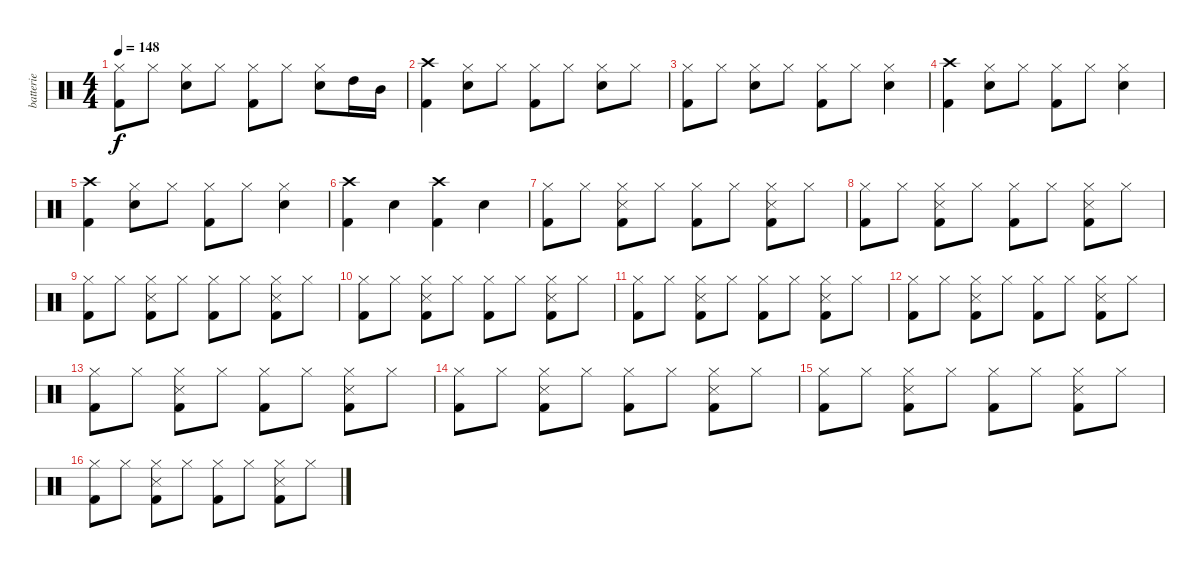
\track ("batterie" "batterie") {instrument percussion}
\staff {score}
\articulation defaults
\ts (4 4)
\tempo 148
\clef neutral
\ks c
("Hi-Hat (closed)" "Kick (hit) 2").8{dy f} "Hi-Hat (closed)".8 ("Hi-Hat (closed)" "Snare (hit) 2").8 "Hi-Hat (closed)".8 ("Hi-Hat (closed)" "Kick (hit) 2").8 "Hi-Hat (closed)".8 ("Hi-Hat (closed)" "Snare (hit) 2").8 "High Tom (hit)".16 "Mid Tom (hit)".16 |
("Crash high (hit)" "Kick (hit) 2").4 ("Hi-Hat (closed)" "Snare (hit) 2").8 "Hi-Hat (closed)".8 ("Hi-Hat (closed)" "Kick (hit) 2").8 "Hi-Hat (closed)".8 ("Hi-Hat (closed)" "Snare (hit) 2").8 "Hi-Hat (closed)".8 |
("Hi-Hat (closed)" "Kick (hit) 2").8 "Hi-Hat (closed)".8 ("Hi-Hat (closed)" "Snare (hit) 2").8 "Hi-Hat (closed)".8 ("Hi-Hat (closed)" "Kick (hit) 2").8 "Hi-Hat (closed)".8 ("Hi-Hat (closed)" "Snare (hit) 2").4 |
("Crash high (hit)" "Kick (hit) 2").4 ("Hi-Hat (closed)" "Snare (hit) 2").8 "Hi-Hat (closed)".8 ("Hi-Hat (closed)" "Kick (hit) 2").8 "Hi-Hat (closed)".8 ("Hi-Hat (closed)" "Snare (hit) 2").4 |
("Crash high (hit)" "Kick (hit) 2").4 ("Hi-Hat (closed)" "Snare (hit) 2").8 "Hi-Hat (closed)".8 ("Hi-Hat (closed)" "Kick (hit) 2").8 "Hi-Hat (closed)".8 ("Hi-Hat (closed)" "Snare (hit) 2").4 |
("Crash high (hit)" "Kick (hit) 2").4 "Snare (hit) 2".4 ("Crash high (hit)" "Kick (hit) 2").4 "Snare (hit) 2".4 |
("Hi-Hat (closed)" "Kick (hit) 2").8 "Hi-Hat (closed)".8 ("Hi-Hat (closed)" "Snare (side stick) 3" "Kick (hit) 2").8 "Hi-Hat (closed)".8 ("Hi-Hat (closed)" "Kick (hit) 2").8 "Hi-Hat (closed)".8 ("Hi-Hat (closed)" "Snare (side stick) 3" "Kick (hit) 2").8 "Hi-Hat (closed)".8 |
("Hi-Hat (closed)" "Kick (hit) 2").8 "Hi-Hat (closed)".8 ("Hi-Hat (closed)" "Snare (side stick) 3" "Kick (hit) 2").8 "Hi-Hat (closed)".8 ("Hi-Hat (closed)" "Kick (hit) 2").8 "Hi-Hat (closed)".8 ("Hi-Hat (closed)" "Snare (side stick) 3" "Kick (hit) 2").8 "Hi-Hat (closed)".8 |
("Hi-Hat (closed)" "Kick (hit) 2").8 "Hi-Hat (closed)".8 ("Hi-Hat (closed)" "Snare (side stick) 3" "Kick (hit) 2").8 "Hi-Hat (closed)".8 ("Hi-Hat (closed)" "Kick (hit) 2").8 "Hi-Hat (closed)".8 ("Hi-Hat (closed)" "Snare (side stick) 3" "Kick (hit) 2").8 "Hi-Hat (closed)".8 |
("Hi-Hat (closed)" "Kick (hit) 2").8 "Hi-Hat (closed)".8 ("Hi-Hat (closed)" "Snare (side stick) 3" "Kick (hit) 2").8 "Hi-Hat (closed)".8 ("Hi-Hat (closed)" "Kick (hit) 2").8 "Hi-Hat (closed)".8 ("Hi-Hat (closed)" "Snare (side stick) 3" "Kick (hit) 2").8 "Hi-Hat (closed)".8 |
("Hi-Hat (closed)" "Kick (hit) 2").8 "Hi-Hat (closed)".8 ("Hi-Hat (closed)" "Snare (side stick) 3" "Kick (hit) 2").8 "Hi-Hat (closed)".8 ("Hi-Hat (closed)" "Kick (hit) 2").8 "Hi-Hat (closed)".8 ("Hi-Hat (closed)" "Snare (side stick) 3" "Kick (hit) 2").8 "Hi-Hat (closed)".8 |
("Hi-Hat (closed)" "Kick (hit) 2").8 "Hi-Hat (closed)".8 ("Hi-Hat (closed)" "Snare (side stick) 3" "Kick (hit) 2").8 "Hi-Hat (closed)".8 ("Hi-Hat (closed)" "Kick (hit) 2").8 "Hi-Hat (closed)".8 ("Hi-Hat (closed)" "Snare (side stick) 3" "Kick (hit) 2").8 "Hi-Hat (closed)".8 |
("Hi-Hat (closed)" "Kick (hit) 2").8 "Hi-Hat (closed)".8 ("Hi-Hat (closed)" "Snare (side stick) 3" "Kick (hit) 2").8 "Hi-Hat (closed)".8 ("Hi-Hat (closed)" "Kick (hit) 2").8 "Hi-Hat (closed)".8 ("Hi-Hat (closed)" "Snare (side stick) 3" "Kick (hit) 2").8 "Hi-Hat (closed)".8 |
("Hi-Hat (closed)" "Kick (hit) 2").8 "Hi-Hat (closed)".8 ("Hi-Hat (closed)" "Snare (side stick) 3" "Kick (hit) 2").8 "Hi-Hat (closed)".8 ("Hi-Hat (closed)" "Kick (hit) 2").8 "Hi-Hat (closed)".8 ("Hi-Hat (closed)" "Snare (side stick) 3" "Kick (hit) 2").8 "Hi-Hat (closed)".8 |
("Hi-Hat (closed)" "Kick (hit) 2").8 "Hi-Hat (closed)".8 ("Hi-Hat (closed)" "Snare (side stick) 3" "Kick (hit) 2").8 "Hi-Hat (closed)".8 ("Hi-Hat (closed)" "Kick (hit) 2").8 "Hi-Hat (closed)".8 ("Hi-Hat (closed)" "Snare (side stick) 3" "Kick (hit) 2").8 "Hi-Hat (closed)".8 |
("Hi-Hat (closed)" "Kick (hit) 2").8 "Hi-Hat (closed)".8 ("Hi-Hat (closed)" "Snare (side stick) 3" "Kick (hit) 2").8 "Hi-Hat (closed)".8 ("Hi-Hat (closed)" "Kick (hit) 2").8 "Hi-Hat (closed)".8 ("Hi-Hat (closed)" "Snare (side stick) 3" "Kick (hit) 2").8 "Hi-Hat (closed)".8
